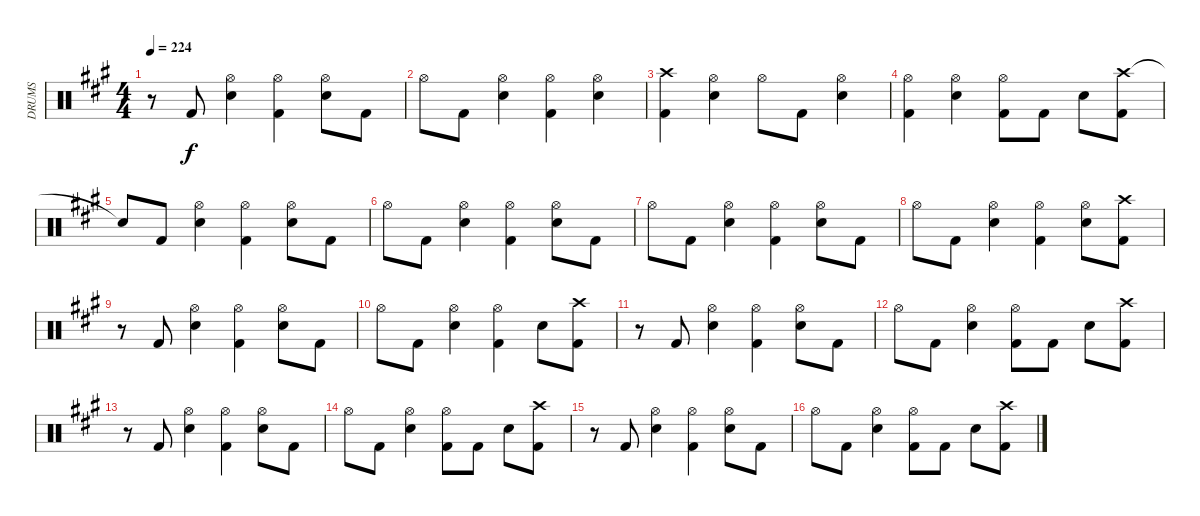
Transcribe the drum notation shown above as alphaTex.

\track ("DRUMS" "DRUMS") {instrument percussion}
\staff {score}
\articulation defaults
\ts (4 4)
\tempo 224
\clef neutral
\ks a
r.8{dy f} "Kick (hit) 2".8 ("Hi-Hat (open)" "Snare (hit) 2").4 ("Hi-Hat (open)" "Kick (hit) 2").4 ("Hi-Hat (open)" "Snare (hit) 2").8 "Kick (hit) 2".8 |
"Hi-Hat (open)".8 "Kick (hit) 2".8 ("Hi-Hat (open)" "Snare (hit) 2").4 ("Hi-Hat (open)" "Kick (hit) 2").4 ("Hi-Hat (open)" "Snare (hit) 2").4 |
("Crash high (hit)" "Kick (hit) 2").4 ("Hi-Hat (open)" "Snare (hit) 2").4 "Hi-Hat (open)".8 "Kick (hit) 2".8 ("Hi-Hat (open)" "Snare (hit) 2").4 |
("Hi-Hat (open)" "Kick (hit) 2").4 ("Hi-Hat (open)" "Snare (hit) 2").4 ("Hi-Hat (open)" "Kick (hit) 2").8 "Kick (hit) 2".8 "Snare (hit) 2".8 ("Crash high (hit)" "Kick (hit) 2").8 |
"Snare (hit)"{t}.8 "Kick (hit) 2".8 ("Hi-Hat (open)" "Snare (hit) 2").4 ("Hi-Hat (open)" "Kick (hit) 2").4 ("Hi-Hat (open)" "Snare (hit) 2").8 "Kick (hit) 2".8 |
"Hi-Hat (open)".8 "Kick (hit) 2".8 ("Hi-Hat (open)" "Snare (hit) 2").4 ("Hi-Hat (open)" "Kick (hit) 2").4 ("Hi-Hat (open)" "Snare (hit) 2").8 "Kick (hit) 2".8 |
"Hi-Hat (open)".8 "Kick (hit) 2".8 ("Hi-Hat (open)" "Snare (hit) 2").4 ("Hi-Hat (open)" "Kick (hit) 2").4 ("Hi-Hat (open)" "Snare (hit) 2").8 "Kick (hit) 2".8 |
"Hi-Hat (open)".8 "Kick (hit) 2".8 ("Hi-Hat (open)" "Snare (hit) 2").4 ("Hi-Hat (open)" "Kick (hit) 2").4 ("Hi-Hat (open)" "Snare (hit) 2").8 ("Crash high (hit)" "Kick (hit) 2").8 |
r.8 "Kick (hit) 2".8 ("Hi-Hat (open)" "Snare (hit) 2").4 ("Hi-Hat (open)" "Kick (hit) 2").4 ("Hi-Hat (open)" "Snare (hit) 2").8 "Kick (hit) 2".8 |
"Hi-Hat (open)".8 "Kick (hit) 2".8 ("Hi-Hat (open)" "Snare (hit) 2").4 ("Hi-Hat (open)" "Kick (hit) 2").4 "Snare (hit) 2".8 ("Crash high (hit)" "Kick (hit) 2").8 |
r.8 "Kick (hit) 2".8 ("Hi-Hat (open)" "Snare (hit) 2").4 ("Hi-Hat (open)" "Kick (hit) 2").4 ("Hi-Hat (open)" "Snare (hit) 2").8 "Kick (hit) 2".8 |
"Hi-Hat (open)".8 "Kick (hit) 2".8 ("Hi-Hat (open)" "Snare (hit) 2").4 ("Hi-Hat (open)" "Kick (hit) 2").8 "Kick (hit) 2".8 "Snare (hit) 2".8 ("Crash high (hit)" "Kick (hit) 2").8 |
r.8 "Kick (hit) 2".8 ("Hi-Hat (open)" "Snare (hit) 2").4 ("Hi-Hat (open)" "Kick (hit) 2").4 ("Hi-Hat (open)" "Snare (hit) 2").8 "Kick (hit) 2".8 |
"Hi-Hat (open)".8 "Kick (hit) 2".8 ("Hi-Hat (open)" "Snare (hit) 2").4 ("Hi-Hat (open)" "Kick (hit) 2").8 "Kick (hit) 2".8 "Snare (hit) 2".8 ("Crash high (hit)" "Kick (hit) 2").8 |
r.8 "Kick (hit) 2".8 ("Hi-Hat (open)" "Snare (hit) 2").4 ("Hi-Hat (open)" "Kick (hit) 2").4 ("Hi-Hat (open)" "Snare (hit) 2").8 "Kick (hit) 2".8 |
"Hi-Hat (open)".8 "Kick (hit) 2".8 ("Hi-Hat (open)" "Snare (hit) 2").4 ("Hi-Hat (open)" "Kick (hit) 2").8 "Kick (hit) 2".8 "Snare (hit) 2".8 ("Crash high (hit)" "Kick (hit) 2").8
